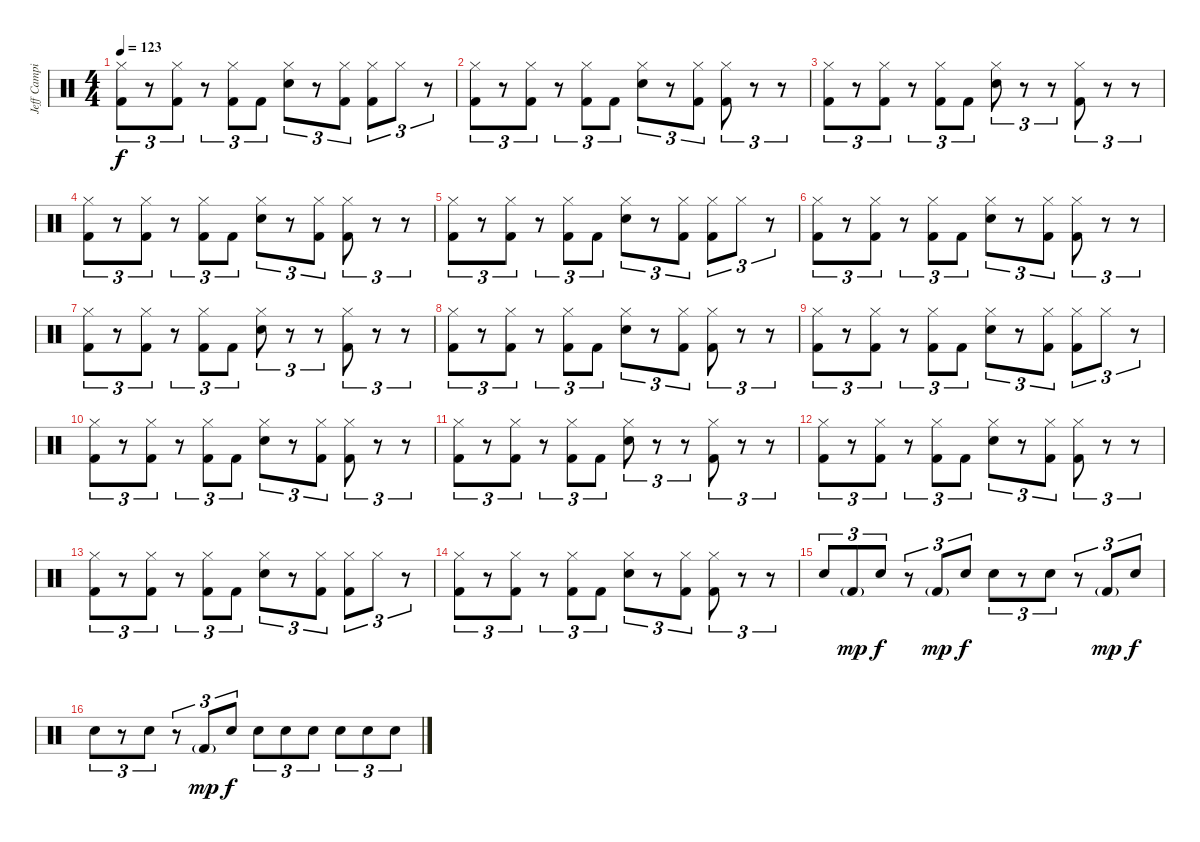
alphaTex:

\track ("Jeff Campitelli (Drums)" "Jeff Campi") {instrument percussion}
\staff {score}
\articulation defaults
\ts (4 4)
\tempo 123
\clef neutral
\ks c
("Hi-Hat (closed)" "Kick (hit) 2").8{tu (3 2) dy f} r.8{tu (3 2)} ("Hi-Hat (closed)" "Kick (hit) 2").8{tu (3 2)} r.8{tu (3 2)} ("Hi-Hat (closed)" "Kick (hit) 2").8{tu (3 2)} "Kick (hit) 2".8{tu (3 2)} ("Hi-Hat (closed)" "Electric Snare (hit)").8{tu (3 2)} r.8{tu (3 2)} ("Hi-Hat (closed)" "Kick (hit) 2").8{tu (3 2)} ("Hi-Hat (closed)" "Kick (hit) 2").8{tu (3 2)} "Hi-Hat (closed)".8{tu (3 2)} r.8{tu (3 2)} |
("Hi-Hat (closed)" "Kick (hit) 2").8{tu (3 2)} r.8{tu (3 2)} ("Hi-Hat (closed)" "Kick (hit) 2").8{tu (3 2)} r.8{tu (3 2)} ("Hi-Hat (closed)" "Kick (hit) 2").8{tu (3 2)} "Kick (hit) 2".8{tu (3 2)} ("Hi-Hat (closed)" "Electric Snare (hit)").8{tu (3 2)} r.8{tu (3 2)} ("Hi-Hat (closed)" "Kick (hit) 2").8{tu (3 2)} ("Hi-Hat (closed)" "Kick (hit) 2").8{tu (3 2)} r.8{tu (3 2)} r.8{tu (3 2)} |
("Hi-Hat (closed)" "Kick (hit) 2").8{tu (3 2)} r.8{tu (3 2)} ("Hi-Hat (closed)" "Kick (hit) 2").8{tu (3 2)} r.8{tu (3 2)} ("Hi-Hat (closed)" "Kick (hit) 2").8{tu (3 2)} "Kick (hit) 2".8{tu (3 2)} ("Hi-Hat (closed)" "Electric Snare (hit)").8{tu (3 2)} r.8{tu (3 2)} r.8{tu (3 2)} ("Hi-Hat (closed)" "Kick (hit) 2").8{tu (3 2)} r.8{tu (3 2)} r.8{tu (3 2)} |
("Hi-Hat (closed)" "Kick (hit) 2").8{tu (3 2)} r.8{tu (3 2)} ("Hi-Hat (closed)" "Kick (hit) 2").8{tu (3 2)} r.8{tu (3 2)} ("Hi-Hat (closed)" "Kick (hit) 2").8{tu (3 2)} "Kick (hit) 2".8{tu (3 2)} ("Hi-Hat (closed)" "Electric Snare (hit)").8{tu (3 2)} r.8{tu (3 2)} ("Hi-Hat (closed)" "Kick (hit) 2").8{tu (3 2)} ("Hi-Hat (closed)" "Kick (hit) 2").8{tu (3 2)} r.8{tu (3 2)} r.8{tu (3 2)} |
("Hi-Hat (closed)" "Kick (hit) 2").8{tu (3 2)} r.8{tu (3 2)} ("Hi-Hat (closed)" "Kick (hit) 2").8{tu (3 2)} r.8{tu (3 2)} ("Hi-Hat (closed)" "Kick (hit) 2").8{tu (3 2)} "Kick (hit) 2".8{tu (3 2)} ("Hi-Hat (closed)" "Electric Snare (hit)").8{tu (3 2)} r.8{tu (3 2)} ("Hi-Hat (closed)" "Kick (hit) 2").8{tu (3 2)} ("Hi-Hat (closed)" "Kick (hit) 2").8{tu (3 2)} "Hi-Hat (closed)".8{tu (3 2)} r.8{tu (3 2)} |
("Hi-Hat (closed)" "Kick (hit) 2").8{tu (3 2)} r.8{tu (3 2)} ("Hi-Hat (closed)" "Kick (hit) 2").8{tu (3 2)} r.8{tu (3 2)} ("Hi-Hat (closed)" "Kick (hit) 2").8{tu (3 2)} "Kick (hit) 2".8{tu (3 2)} ("Hi-Hat (closed)" "Electric Snare (hit)").8{tu (3 2)} r.8{tu (3 2)} ("Hi-Hat (closed)" "Kick (hit) 2").8{tu (3 2)} ("Hi-Hat (closed)" "Kick (hit) 2").8{tu (3 2)} r.8{tu (3 2)} r.8{tu (3 2)} |
("Hi-Hat (closed)" "Kick (hit) 2").8{tu (3 2)} r.8{tu (3 2)} ("Hi-Hat (closed)" "Kick (hit) 2").8{tu (3 2)} r.8{tu (3 2)} ("Hi-Hat (closed)" "Kick (hit) 2").8{tu (3 2)} "Kick (hit) 2".8{tu (3 2)} ("Hi-Hat (closed)" "Electric Snare (hit)").8{tu (3 2)} r.8{tu (3 2)} r.8{tu (3 2)} ("Hi-Hat (closed)" "Kick (hit) 2").8{tu (3 2)} r.8{tu (3 2)} r.8{tu (3 2)} |
("Hi-Hat (closed)" "Kick (hit) 2").8{tu (3 2)} r.8{tu (3 2)} ("Hi-Hat (closed)" "Kick (hit) 2").8{tu (3 2)} r.8{tu (3 2)} ("Hi-Hat (closed)" "Kick (hit) 2").8{tu (3 2)} "Kick (hit) 2".8{tu (3 2)} ("Hi-Hat (closed)" "Electric Snare (hit)").8{tu (3 2)} r.8{tu (3 2)} ("Hi-Hat (closed)" "Kick (hit) 2").8{tu (3 2)} ("Hi-Hat (closed)" "Kick (hit) 2").8{tu (3 2)} r.8{tu (3 2)} r.8{tu (3 2)} |
("Hi-Hat (closed)" "Kick (hit) 2").8{tu (3 2)} r.8{tu (3 2)} ("Hi-Hat (closed)" "Kick (hit) 2").8{tu (3 2)} r.8{tu (3 2)} ("Hi-Hat (closed)" "Kick (hit) 2").8{tu (3 2)} "Kick (hit) 2".8{tu (3 2)} ("Hi-Hat (closed)" "Electric Snare (hit)").8{tu (3 2)} r.8{tu (3 2)} ("Hi-Hat (closed)" "Kick (hit) 2").8{tu (3 2)} ("Hi-Hat (closed)" "Kick (hit) 2").8{tu (3 2)} "Hi-Hat (closed)".8{tu (3 2)} r.8{tu (3 2)} |
("Hi-Hat (closed)" "Kick (hit) 2").8{tu (3 2)} r.8{tu (3 2)} ("Hi-Hat (closed)" "Kick (hit) 2").8{tu (3 2)} r.8{tu (3 2)} ("Hi-Hat (closed)" "Kick (hit) 2").8{tu (3 2)} "Kick (hit) 2".8{tu (3 2)} ("Hi-Hat (closed)" "Electric Snare (hit)").8{tu (3 2)} r.8{tu (3 2)} ("Hi-Hat (closed)" "Kick (hit) 2").8{tu (3 2)} ("Hi-Hat (closed)" "Kick (hit) 2").8{tu (3 2)} r.8{tu (3 2)} r.8{tu (3 2)} |
("Hi-Hat (closed)" "Kick (hit) 2").8{tu (3 2)} r.8{tu (3 2)} ("Hi-Hat (closed)" "Kick (hit) 2").8{tu (3 2)} r.8{tu (3 2)} ("Hi-Hat (closed)" "Kick (hit) 2").8{tu (3 2)} "Kick (hit) 2".8{tu (3 2)} ("Hi-Hat (closed)" "Electric Snare (hit)").8{tu (3 2)} r.8{tu (3 2)} r.8{tu (3 2)} ("Hi-Hat (closed)" "Kick (hit) 2").8{tu (3 2)} r.8{tu (3 2)} r.8{tu (3 2)} |
("Hi-Hat (closed)" "Kick (hit) 2").8{tu (3 2)} r.8{tu (3 2)} ("Hi-Hat (closed)" "Kick (hit) 2").8{tu (3 2)} r.8{tu (3 2)} ("Hi-Hat (closed)" "Kick (hit) 2").8{tu (3 2)} "Kick (hit) 2".8{tu (3 2)} ("Hi-Hat (closed)" "Electric Snare (hit)").8{tu (3 2)} r.8{tu (3 2)} ("Hi-Hat (closed)" "Kick (hit) 2").8{tu (3 2)} ("Hi-Hat (closed)" "Kick (hit) 2").8{tu (3 2)} r.8{tu (3 2)} r.8{tu (3 2)} |
("Hi-Hat (closed)" "Kick (hit) 2").8{tu (3 2)} r.8{tu (3 2)} ("Hi-Hat (closed)" "Kick (hit) 2").8{tu (3 2)} r.8{tu (3 2)} ("Hi-Hat (closed)" "Kick (hit) 2").8{tu (3 2)} "Kick (hit) 2".8{tu (3 2)} ("Hi-Hat (closed)" "Electric Snare (hit)").8{tu (3 2)} r.8{tu (3 2)} ("Hi-Hat (closed)" "Kick (hit) 2").8{tu (3 2)} ("Hi-Hat (closed)" "Kick (hit) 2").8{tu (3 2)} "Hi-Hat (closed)".8{tu (3 2)} r.8{tu (3 2)} |
("Hi-Hat (closed)" "Kick (hit) 2").8{tu (3 2)} r.8{tu (3 2)} ("Hi-Hat (closed)" "Kick (hit) 2").8{tu (3 2)} r.8{tu (3 2)} ("Hi-Hat (closed)" "Kick (hit) 2").8{tu (3 2)} "Kick (hit) 2".8{tu (3 2)} ("Hi-Hat (closed)" "Electric Snare (hit)").8{tu (3 2)} r.8{tu (3 2)} ("Hi-Hat (closed)" "Kick (hit) 2").8{tu (3 2)} ("Hi-Hat (closed)" "Kick (hit) 2").8{tu (3 2)} r.8{tu (3 2)} r.8{tu (3 2)} |
"Electric Snare (hit)".8{tu (3 2)} "Kick (hit) 2"{g}.8{tu (3 2) dy mp} "Electric Snare (hit)".8{tu (3 2) dy f} r.8{tu (3 2)} "Kick (hit) 2"{g}.8{tu (3 2) dy mp} "Electric Snare (hit)".8{tu (3 2) dy f} "Electric Snare (hit)".8{tu (3 2)} r.8{tu (3 2)} "Electric Snare (hit)".8{tu (3 2)} r.8{tu (3 2)} "Kick (hit) 2"{g}.8{tu (3 2) dy mp} "Electric Snare (hit)".8{tu (3 2) dy f} |
"Electric Snare (hit)".8{tu (3 2)} r.8{tu (3 2)} "Electric Snare (hit)".8{tu (3 2)} r.8{tu (3 2)} "Kick (hit) 2"{g}.8{tu (3 2) dy mp} "Electric Snare (hit)".8{tu (3 2) dy f} "Electric Snare (hit)".8{tu (3 2)} "Electric Snare (hit)".8{tu (3 2)} "Electric Snare (hit)".8{tu (3 2)} "Electric Snare (hit)".8{tu (3 2)} "Electric Snare (hit)".8{tu (3 2)} "Electric Snare (hit)".8{tu (3 2)}
